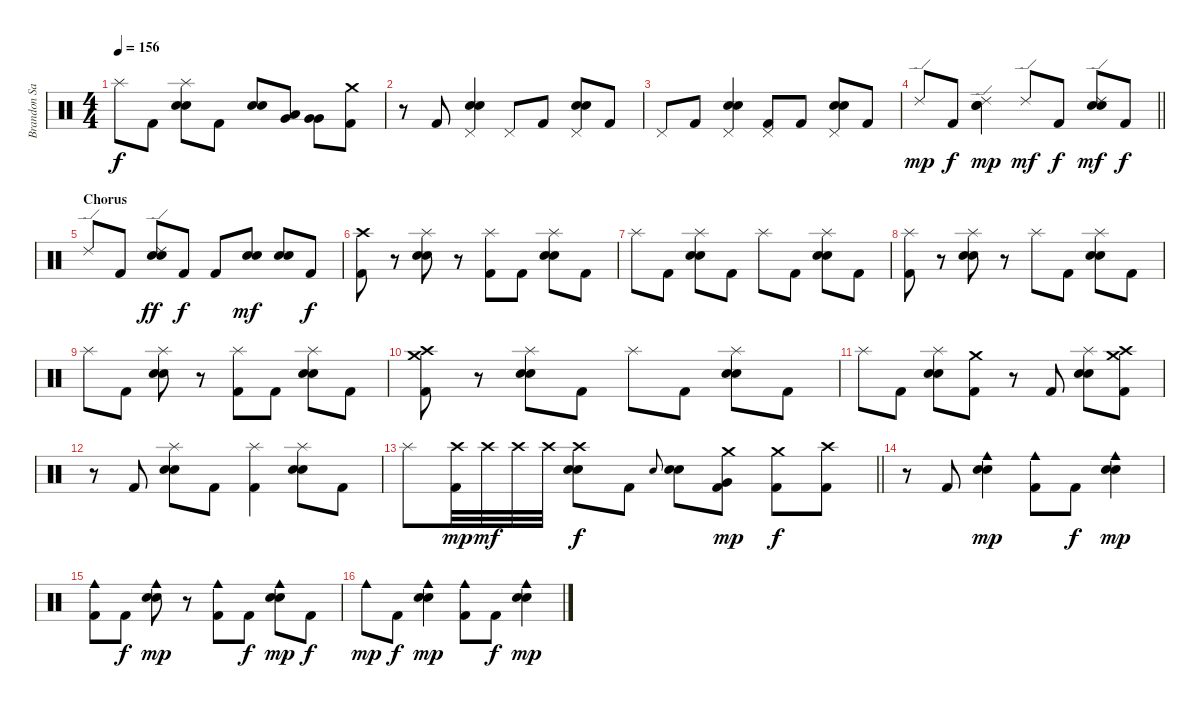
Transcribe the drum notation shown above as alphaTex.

\track ("Brandon Saller" "Brandon Sa") {instrument percussion}
\staff {score}
\articulation defaults
\ts (4 4)
\tempo 156
\clef neutral
\ks c "Splash (hit)".8{dy f} "Kick (hit) 2".8
("Splash (hit)" "Snare (hit) 2" "Electric Snare (hit)").8 "Kick (hit) 2".8 ("Snare (hit) 2" "Electric Snare (hit)").8 ("Low Tom (hit)" "Very Low Tom (hit)").8 ("Very Low Tom (hit)" "Very Low Tom (hit)").8 ("Crash medium (hit)" "Kick (hit) 2").8 |
r.8 "Kick (hit) 2".8 ("Pedal Hi-Hat (hit)" "Snare (hit) 2" "Electric Snare (hit)").4 "Pedal Hi-Hat (hit)".8 "Kick (hit) 2".8 ("Pedal Hi-Hat (hit)" "Snare (hit) 2" "Electric Snare (hit)").8 "Kick (hit) 2".8 |
"Pedal Hi-Hat (hit)".8 "Kick (hit) 2".8 ("Pedal Hi-Hat (hit)" "Snare (hit) 2" "Electric Snare (hit)").4 ("Pedal Hi-Hat (hit)" "Kick (hit) 2").8 "Kick (hit) 2".8 ("Pedal Hi-Hat (hit)" "Snare (hit) 2" "Electric Snare (hit)").8 "Kick (hit) 2".8 |
\barLineRight lightlight "Ride (edge) 2".8{dy mp} "Kick (hit) 2".8{dy f}
("Ride (edge) 2" "Snare (hit) 2" "Electric Snare (hit)").4{dy mp} "Ride (edge) 2".8{dy mf} "Kick (hit) 2".8{dy f} ("Ride (edge) 2" "Snare (hit) 2" "Electric Snare (hit)").8{dy mf} "Kick (hit) 2".8{dy f} |
\section ("" "Chorus")
"Ride (edge) 2".8 "Kick (hit) 2".8 ("Ride (edge) 2" "Snare (hit) 2" "Electric Snare (hit)").8{dy ff} "Kick (hit) 2".8{dy f} "Kick (hit) 2".8 ("Snare (hit) 2" "Electric Snare (hit)").8{dy mf} ("Snare (hit) 2" "Electric Snare (hit)").8 "Kick (hit) 2".8{dy f} |
("Crash high (hit)" "Kick (hit) 2").8 r.8 ("Splash (hit)" "Snare (hit) 2" "Electric Snare (hit)").8 r.8 ("Splash (hit)" "Kick (hit) 2").8 "Kick (hit) 2".8 ("Splash (hit)" "Snare (hit) 2" "Electric Snare (hit)").8 "Kick (hit) 2".8 |
"Splash (hit)".8 "Kick (hit) 2".8 ("Splash (hit)" "Snare (hit) 2" "Electric Snare (hit)").8 "Kick (hit) 2".8 "Splash (hit)".8 "Kick (hit) 2".8 ("Splash (hit)" "Snare (hit) 2" "Electric Snare (hit)").8 "Kick (hit) 2".8 |
("Splash (hit)" "Kick (hit) 2").8 r.8 ("Splash (hit)" "Snare (hit) 2" "Electric Snare (hit)").8 r.8 "Splash (hit)".8 "Kick (hit) 2".8 ("Splash (hit)" "Snare (hit) 2" "Electric Snare (hit)").8 "Kick (hit) 2".8 |
"Splash (hit)".8 "Kick (hit) 2".8 ("Splash (hit)" "Snare (hit) 2" "Electric Snare (hit)").8 r.8 ("Splash (hit)" "Kick (hit) 2").8 "Kick (hit) 2".8 ("Splash (hit)" "Snare (hit) 2" "Electric Snare (hit)").8 "Kick (hit) 2".8 |
("Crash high (hit)" "Crash medium (hit)" "Kick (hit) 2").8 r.8 ("Splash (hit)" "Snare (hit) 2" "Electric Snare (hit)").8 "Kick (hit) 2".8 "Splash (hit)".8 "Kick (hit) 2".8 ("Splash (hit)" "Snare (hit) 2" "Electric Snare (hit)").8 "Kick (hit) 2".8 |
"Splash (hit)".8 "Kick (hit) 2".8 ("Splash (hit)" "Snare (hit) 2" "Electric Snare (hit)").8 ("Crash medium (hit)" "Kick (hit) 2").8 r.8 "Kick (hit) 2".8 ("Splash (hit)" "Snare (hit) 2" "Electric Snare (hit)").8 ("Crash high (hit)" "Crash medium (hit)" "Kick (hit) 2").8 |
r.8 "Kick (hit) 2".8 ("Splash (hit)" "Snare (hit) 2" "Electric Snare (hit)").8 "Kick (hit) 2".8 ("Splash (hit)" "Kick (hit) 2").4 ("Splash (hit)" "Snare (hit) 2" "Electric Snare (hit)").8 "Kick (hit) 2".8 |
\barLineRight lightlight "Splash (hit)".8
("Crash high (hit)" "Kick (hit) 2").32{dy mp} "Crash high (hit)".32{dy mf} "Crash high (hit)".32 "Crash high (hit)".32 ("Crash high (hit)" "Snare (hit) 2" "Electric Snare (hit)").8{dy f} "Kick (hit) 2".8 "Electric Snare (hit)".8{gr onbeat} ("Snare (hit) 2" "Electric Snare (hit)").8 ("Crash medium (hit)" "Very Low Tom (hit)" "Kick (hit) 2").8{dy mp} ("Crash medium (hit)" "Kick (hit) 2").8{dy f} ("Crash high (hit)" "Kick (hit) 2").8 |
\section ("" "")
r.8 "Kick (hit) 2".8 ("Cowbell medium (hit)" "Snare (hit) 2" "Electric Snare (hit)").4{dy mp} ("Cowbell medium (hit)" "Kick (hit) 2").8 "Kick (hit) 2".8{dy f} ("Cowbell medium (hit)" "Snare (hit) 2" "Electric Snare (hit)").4{dy mp} |
("Cowbell medium (hit)" "Kick (hit) 2").8 "Kick (hit) 2".8{dy f} ("Cowbell medium (hit)" "Snare (hit) 2" "Electric Snare (hit)").8{dy mp} r.8 ("Cowbell medium (hit)" "Kick (hit) 2").8 "Kick (hit) 2".8{dy f} ("Cowbell medium (hit)" "Snare (hit) 2" "Electric Snare (hit)").8{dy mp} "Kick (hit) 2".8{dy f} |
"Cowbell medium (hit)".8{dy mp} "Kick (hit) 2".8{dy f} ("Cowbell medium (hit)" "Snare (hit) 2" "Electric Snare (hit)").4{dy mp} ("Cowbell medium (hit)" "Kick (hit) 2").8 "Kick (hit) 2".8{dy f} ("Cowbell medium (hit)" "Snare (hit) 2" "Electric Snare (hit)").4{dy mp}
